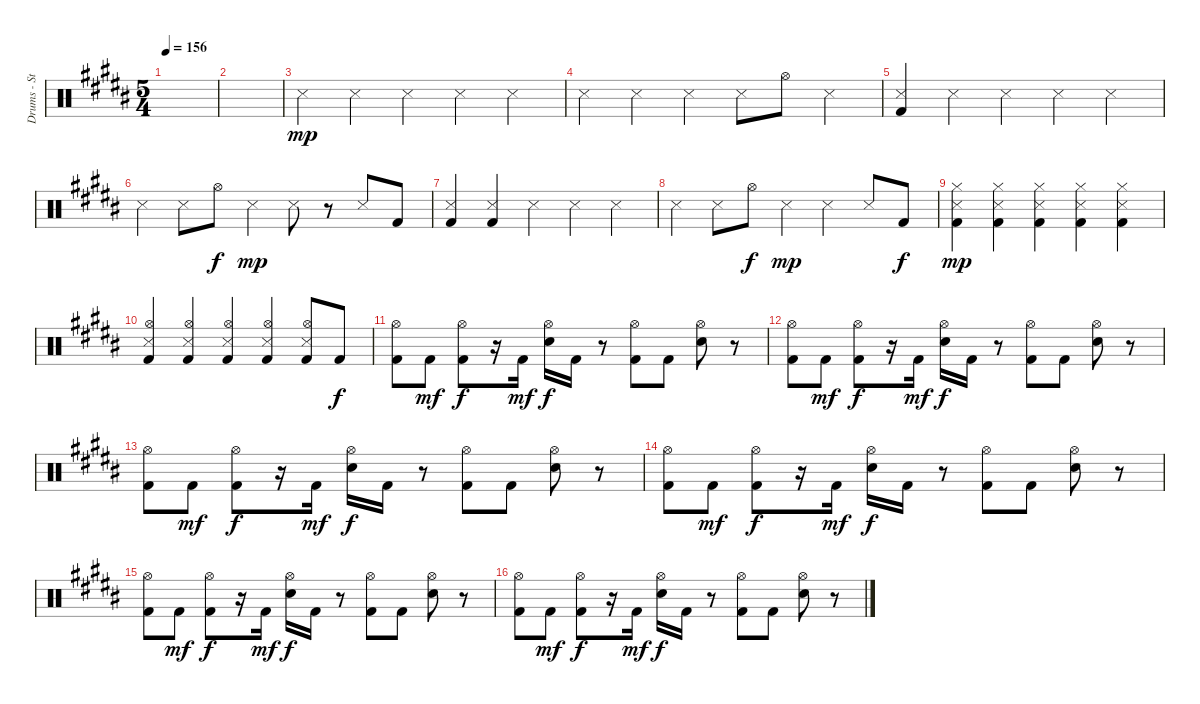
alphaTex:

\track ("Drums - Steve Judd" "Drums - St") {instrument percussion}
\staff {score}
\articulation defaults
\ts (5 4)
\tempo 156
\clef neutral
\ks b
|
|
"Snare (side stick) 3".4{dy mp} "Snare (side stick) 3".4 "Snare (side stick) 3".4 "Snare (side stick) 3".4 "Snare (side stick) 3".4 |
"Snare (side stick) 3".4 "Snare (side stick) 3".4 "Snare (side stick) 3".4 "Snare (side stick) 3".8 "Hi-Hat (open)".8 "Snare (side stick) 3".4 |
("Snare (side stick) 3" "Kick (hit) 2").4 "Snare (side stick) 3".4 "Snare (side stick) 3".4 "Snare (side stick) 3".4 "Snare (side stick) 3".4 |
"Snare (side stick) 3".4 "Snare (side stick) 3".8 "Hi-Hat (open)".8{dy f} "Snare (side stick) 3".4{dy mp} "Snare (side stick) 3".8 r.8 "Snare (side stick) 3".8 "Kick (hit) 2".8 |
("Snare (side stick) 3" "Kick (hit) 2").4 ("Snare (side stick) 3" "Kick (hit) 2").4 "Snare (side stick) 3".4 "Snare (side stick) 3".4 "Snare (side stick) 3".4 |
"Snare (side stick) 3".4 "Snare (side stick) 3".8 "Hi-Hat (open)".8{dy f} "Snare (side stick) 3".4{dy mp} "Snare (side stick) 3".4 "Snare (side stick) 3".8 "Kick (hit) 2".8{dy f} |
("Hi-Hat (closed)" "Snare (side stick) 3" "Kick (hit) 2").4{dy mp} ("Hi-Hat (closed)" "Snare (side stick) 3" "Kick (hit) 2").4 ("Hi-Hat (closed)" "Snare (side stick) 3" "Kick (hit) 2").4 ("Hi-Hat (closed)" "Snare (side stick) 3" "Kick (hit) 2").4 ("Hi-Hat (closed)" "Snare (side stick) 3" "Kick (hit) 2").4 |
("Hi-Hat (open)" "Snare (side stick) 3" "Kick (hit) 2").4 ("Hi-Hat (open)" "Snare (side stick) 3" "Kick (hit) 2").4 ("Hi-Hat (open)" "Snare (side stick) 3" "Kick (hit) 2").4 ("Hi-Hat (open)" "Snare (side stick) 3" "Kick (hit) 2").4 ("Hi-Hat (open)" "Snare (side stick) 3" "Kick (hit) 2").8 "Kick (hit) 2".8{dy f} |
("Hi-Hat (open)" "Kick (hit) 2").8 "Kick (hit) 2".8{dy mf} ("Hi-Hat (open)" "Kick (hit) 2").8{dy f} r.16 "Kick (hit) 2".16{dy mf} ("Hi-Hat (open)" "Electric Snare (hit)").16{dy f} "Kick (hit) 2".16 r.8 ("Hi-Hat (open)" "Kick (hit) 2").8 "Kick (hit) 2".8 ("Hi-Hat (open)" "Electric Snare (hit)").8 r.8 |
("Hi-Hat (open)" "Kick (hit) 2").8 "Kick (hit) 2".8{dy mf} ("Hi-Hat (open)" "Kick (hit) 2").8{dy f} r.16 "Kick (hit) 2".16{dy mf} ("Hi-Hat (open)" "Electric Snare (hit)").16{dy f} "Kick (hit) 2".16 r.8 ("Hi-Hat (open)" "Kick (hit) 2").8 "Kick (hit) 2".8 ("Hi-Hat (open)" "Electric Snare (hit)").8 r.8 |
("Hi-Hat (open)" "Kick (hit) 2").8 "Kick (hit) 2".8{dy mf} ("Hi-Hat (open)" "Kick (hit) 2").8{dy f} r.16 "Kick (hit) 2".16{dy mf} ("Hi-Hat (open)" "Electric Snare (hit)").16{dy f} "Kick (hit) 2".16 r.8 ("Hi-Hat (open)" "Kick (hit) 2").8 "Kick (hit) 2".8 ("Hi-Hat (open)" "Electric Snare (hit)").8 r.8 |
("Hi-Hat (open)" "Kick (hit) 2").8 "Kick (hit) 2".8{dy mf} ("Hi-Hat (open)" "Kick (hit) 2").8{dy f} r.16 "Kick (hit) 2".16{dy mf} ("Hi-Hat (open)" "Electric Snare (hit)").16{dy f} "Kick (hit) 2".16 r.8 ("Hi-Hat (open)" "Kick (hit) 2").8 "Kick (hit) 2".8 ("Hi-Hat (open)" "Electric Snare (hit)").8 r.8 |
("Hi-Hat (open)" "Kick (hit) 2").8 "Kick (hit) 2".8{dy mf} ("Hi-Hat (open)" "Kick (hit) 2").8{dy f} r.16 "Kick (hit) 2".16{dy mf} ("Hi-Hat (open)" "Electric Snare (hit)").16{dy f} "Kick (hit) 2".16 r.8 ("Hi-Hat (open)" "Kick (hit) 2").8 "Kick (hit) 2".8 ("Hi-Hat (open)" "Electric Snare (hit)").8 r.8 |
("Hi-Hat (open)" "Kick (hit) 2").8 "Kick (hit) 2".8{dy mf} ("Hi-Hat (open)" "Kick (hit) 2").8{dy f} r.16 "Kick (hit) 2".16{dy mf} ("Hi-Hat (open)" "Electric Snare (hit)").16{dy f} "Kick (hit) 2".16 r.8 ("Hi-Hat (open)" "Kick (hit) 2").8 "Kick (hit) 2".8 ("Hi-Hat (open)" "Electric Snare (hit)").8 r.8
